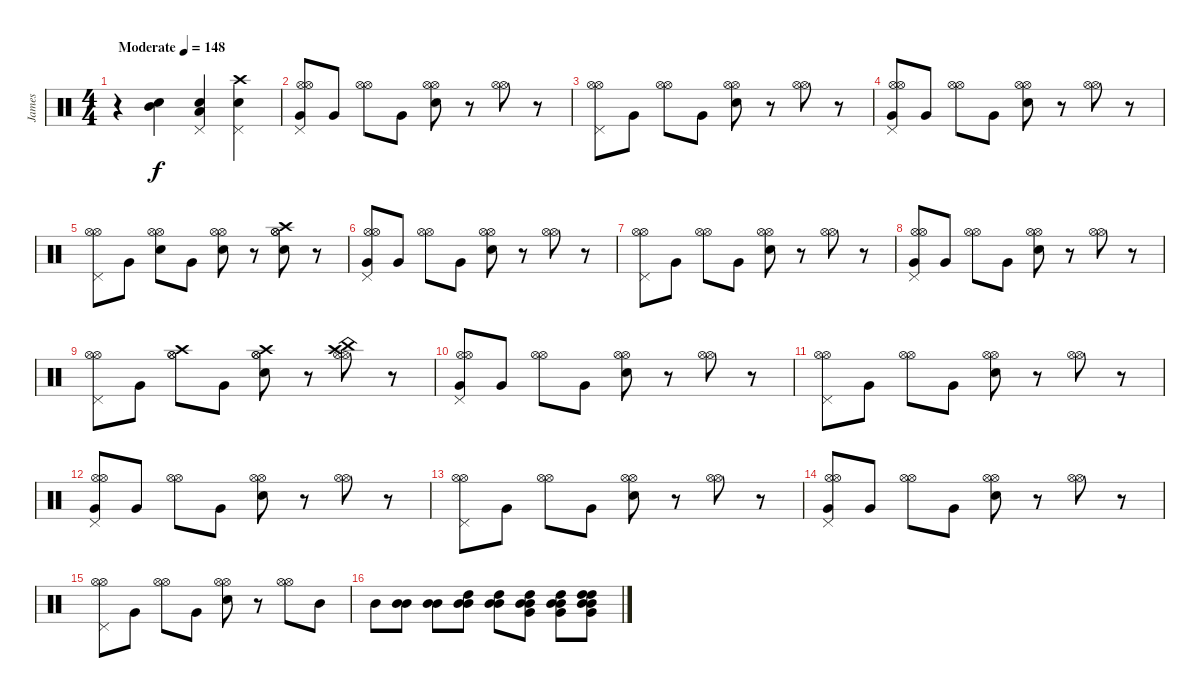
\track ("James" "James") {instrument percussion}
\staff {score}
\articulation defaults
\ts (4 4)
\tempo (148 "Moderate")
\clef neutral
\ks c
r.4{dy f} ("Mid Tom (hit)" "Electric Snare (hit)").4 ("Low Floor Tom (hit)" "Pedal Hi-Hat (hit)" "Electric Snare (hit)").4 ("Crash high (hit)" "Electric Snare (hit)" "Pedal Hi-Hat (hit)").4 |
("Hi-Hat (open)" "Pedal Hi-Hat (hit)" "Very Low Tom (hit)" "Hi-Hat (open)").8 "Very Low Tom (hit)".8 ("Hi-Hat (open)" "Hi-Hat (open)").8 "Very Low Tom (hit)".8 ("Hi-Hat (open)" "Electric Snare (hit)" "Hi-Hat (open)").8 r.8 ("Hi-Hat (open)" "Hi-Hat (open)").8 r.8 |
("Hi-Hat (open)" "Pedal Hi-Hat (hit)" "Hi-Hat (open)").8 "Very Low Tom (hit)".8 ("Hi-Hat (open)" "Hi-Hat (open)").8 "Very Low Tom (hit)".8 ("Hi-Hat (open)" "Electric Snare (hit)" "Hi-Hat (open)").8 r.8 ("Hi-Hat (open)" "Hi-Hat (open)").8 r.8 |
("Hi-Hat (open)" "Pedal Hi-Hat (hit)" "Very Low Tom (hit)" "Hi-Hat (open)").8 "Very Low Tom (hit)".8 ("Hi-Hat (open)" "Hi-Hat (open)").8 "Very Low Tom (hit)".8 ("Hi-Hat (open)" "Electric Snare (hit)" "Hi-Hat (open)").8 r.8 ("Hi-Hat (open)" "Hi-Hat (open)").8 r.8 |
("Hi-Hat (open)" "Pedal Hi-Hat (hit)" "Hi-Hat (open)").8 "Very Low Tom (hit)".8 ("Hi-Hat (open)" "Electric Snare (hit)" "Hi-Hat (open)").8 "Very Low Tom (hit)".8 ("Hi-Hat (open)" "Electric Snare (hit)" "Hi-Hat (open)").8 r.8 ("Hi-Hat (open)" "Crash high (hit)" "Electric Snare (hit)" "Hi-Hat (open)").8 r.8 |
("Hi-Hat (open)" "Pedal Hi-Hat (hit)" "Very Low Tom (hit)" "Hi-Hat (open)").8 "Very Low Tom (hit)".8 ("Hi-Hat (open)" "Hi-Hat (open)").8 "Very Low Tom (hit)".8 ("Hi-Hat (open)" "Electric Snare (hit)" "Hi-Hat (open)").8 r.8 ("Hi-Hat (open)" "Hi-Hat (open)").8 r.8 |
("Hi-Hat (open)" "Pedal Hi-Hat (hit)" "Hi-Hat (open)").8 "Very Low Tom (hit)".8 ("Hi-Hat (open)" "Hi-Hat (open)").8 "Very Low Tom (hit)".8 ("Hi-Hat (open)" "Electric Snare (hit)" "Hi-Hat (open)").8 r.8 ("Hi-Hat (open)" "Hi-Hat (open)").8 r.8 |
("Hi-Hat (open)" "Pedal Hi-Hat (hit)" "Very Low Tom (hit)" "Hi-Hat (open)").8 "Very Low Tom (hit)".8 ("Hi-Hat (open)" "Hi-Hat (open)").8 "Very Low Tom (hit)".8 ("Hi-Hat (open)" "Electric Snare (hit)" "Hi-Hat (open)").8 r.8 ("Hi-Hat (open)" "Hi-Hat (open)").8 r.8 |
("Hi-Hat (open)" "Pedal Hi-Hat (hit)" "Hi-Hat (open)").8 "Very Low Tom (hit)".8 ("Hi-Hat (open)" "Crash high (hit)" "Hi-Hat (open)").8 "Very Low Tom (hit)".8 ("Hi-Hat (open)" "Electric Snare (hit)" "Crash high (hit)" "Hi-Hat (open)").8 r.8 ("Hi-Hat (open)" "China (hit)" "Crash high (hit)" "Hi-Hat (open)").8 r.8 |
("Hi-Hat (open)" "Pedal Hi-Hat (hit)" "Very Low Tom (hit)" "Hi-Hat (open)").8 "Very Low Tom (hit)".8 ("Hi-Hat (open)" "Hi-Hat (open)").8 "Very Low Tom (hit)".8 ("Hi-Hat (open)" "Electric Snare (hit)" "Hi-Hat (open)").8 r.8 ("Hi-Hat (open)" "Hi-Hat (open)").8 r.8 |
("Hi-Hat (open)" "Pedal Hi-Hat (hit)" "Hi-Hat (open)").8 "Very Low Tom (hit)".8 ("Hi-Hat (open)" "Hi-Hat (open)").8 "Very Low Tom (hit)".8 ("Hi-Hat (open)" "Electric Snare (hit)" "Hi-Hat (open)").8 r.8 ("Hi-Hat (open)" "Hi-Hat (open)").8 r.8 |
("Hi-Hat (open)" "Pedal Hi-Hat (hit)" "Very Low Tom (hit)" "Hi-Hat (open)").8 "Very Low Tom (hit)".8 ("Hi-Hat (open)" "Hi-Hat (open)").8 "Very Low Tom (hit)".8 ("Hi-Hat (open)" "Electric Snare (hit)" "Hi-Hat (open)").8 r.8 ("Hi-Hat (open)" "Hi-Hat (open)").8 r.8 |
("Hi-Hat (open)" "Pedal Hi-Hat (hit)" "Hi-Hat (open)").8 "Very Low Tom (hit)".8 ("Hi-Hat (open)" "Hi-Hat (open)").8 "Very Low Tom (hit)".8 ("Hi-Hat (open)" "Electric Snare (hit)" "Hi-Hat (open)").8 r.8 ("Hi-Hat (open)" "Hi-Hat (open)").8 r.8 |
("Hi-Hat (open)" "Pedal Hi-Hat (hit)" "Very Low Tom (hit)" "Hi-Hat (open)").8 "Very Low Tom (hit)".8 ("Hi-Hat (open)" "Hi-Hat (open)").8 "Very Low Tom (hit)".8 ("Hi-Hat (open)" "Electric Snare (hit)" "Hi-Hat (open)").8 r.8 ("Hi-Hat (open)" "Hi-Hat (open)").8 r.8 |
("Hi-Hat (open)" "Pedal Hi-Hat (hit)" "Hi-Hat (open)").8 "Very Low Tom (hit)".8 ("Hi-Hat (open)" "Hi-Hat (open)").8 "Very Low Tom (hit)".8 ("Hi-Hat (open)" "Electric Snare (hit)" "Hi-Hat (open)").8 r.8 ("Hi-Hat (open)" "Hi-Hat (open)").8 "Mid Tom (hit)".8 |
"Mid Tom (hit)".8 ("Mid Tom (hit)" "Mid Tom (hit)").8 ("Mid Tom (hit)" "Mid Tom (hit)").8 ("Mid Tom (hit)" "Mid Tom (hit)" "High Tom (hit)").8 ("Mid Tom (hit)" "Mid Tom (hit)" "High Tom (hit)").8 ("Mid Tom (hit)" "Mid Tom (hit)" "High Tom (hit)" "Very Low Tom (hit)").8 ("Mid Tom (hit)" "Mid Tom (hit)" "High Tom (hit)" "Very Low Tom (hit)").8 ("Mid Tom (hit)" "Mid Tom (hit)" "High Tom (hit)" "Very Low Tom (hit)" "High Tom (hit)").8
